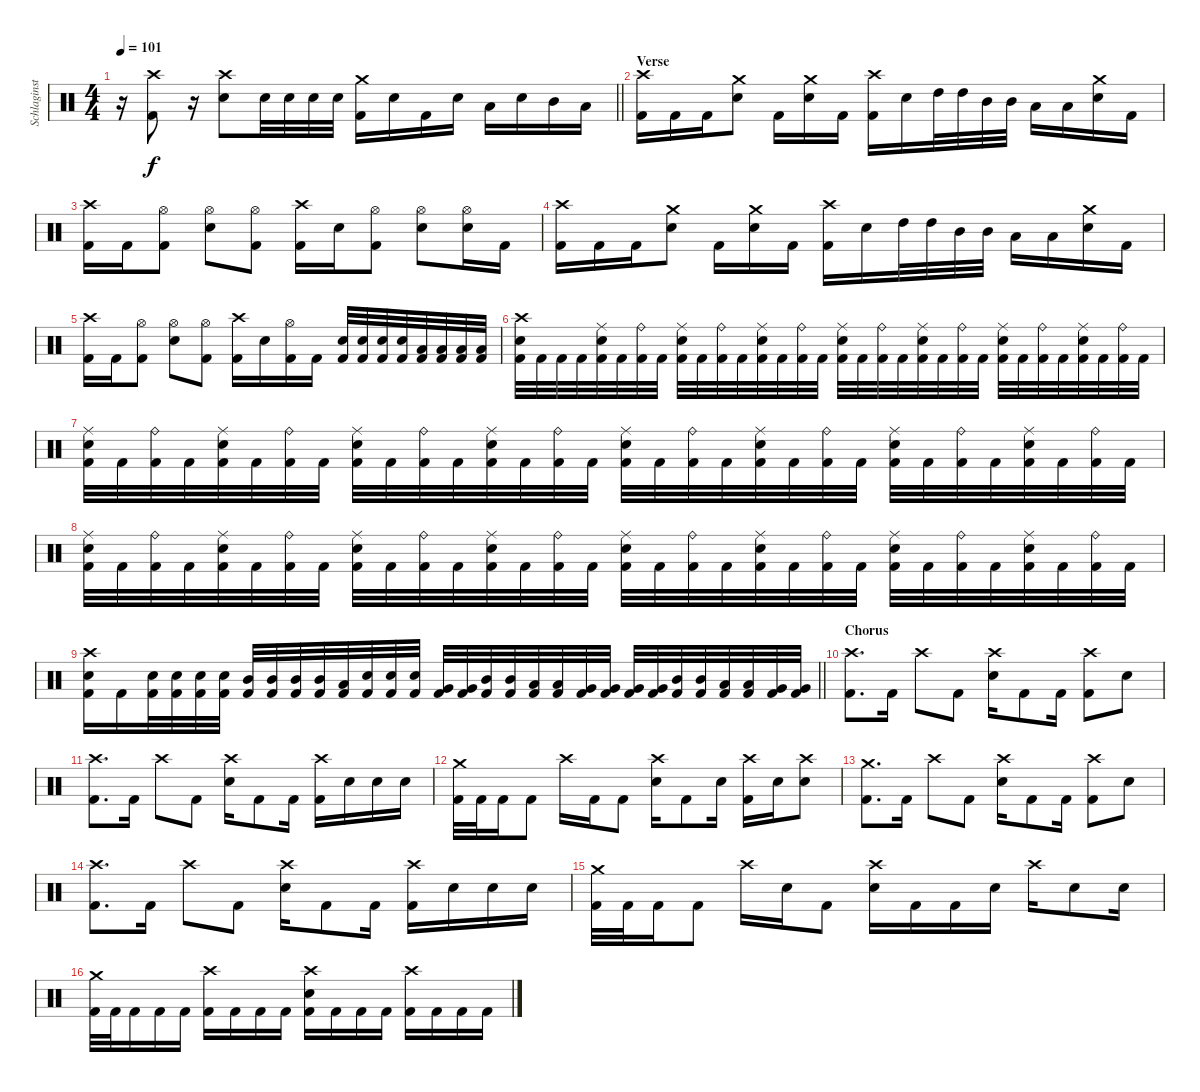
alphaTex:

\track ("Schlaginstrumente - Auswahl" "Schlaginst") {instrument percussion}
\staff {score}
\articulation defaults
\ts (4 4)
\tempo 101
\clef neutral
\barLineRight lightlight
\ks c
r.16{dy f} ("Crash high (hit)" "Kick (hit) 2").8 r.16 ("Crash high (hit)" "Snare (hit) 2").8 "Snare (hit) 2".32 "Snare (hit) 2".32 "Snare (hit) 2".32 "Snare (hit) 2".32 ("Crash medium (hit)" "Kick (hit) 2").16 "Snare (hit) 2".16 "Kick (hit) 2".16 "Snare (hit) 2".16 "Low Floor Tom (hit)".16 "Snare (hit) 2".16 "Mid Tom (hit)".16 "Low Tom (hit)".16 |
\section ("" "Verse")
("Crash high (hit)" "Kick (hit) 2").16 "Kick (hit) 2".16 "Kick (hit) 2".16 ("Crash medium (hit)" "Snare (hit) 2").8 "Kick (hit) 2".16 ("Crash medium (hit)" "Snare (hit) 2").16 "Kick (hit) 2".16 ("Crash high (hit)" "Kick (hit) 2").16 "Snare (hit) 2".16 "High Tom (hit)".32 "High Tom (hit)".32 "Mid Tom (hit)".32 "Mid Tom (hit)".32 "Low Tom (hit)".16 "Low Tom (hit)".16 ("Crash medium (hit)" "Snare (hit) 2").16 "Kick (hit) 2".16 |
("Crash high (hit)" "Kick (hit) 2").16 "Kick (hit) 2".16 ("Hi-Hat (open)" "Kick (hit) 2").8 ("Hi-Hat (open)" "Snare (hit) 2").8 ("Hi-Hat (open)" "Kick (hit) 2").8 ("Crash high (hit)" "Kick (hit) 2").16 "Snare (hit) 2".16 ("Hi-Hat (open)" "Kick (hit) 2").8 ("Hi-Hat (open)" "Snare (hit) 2").8 ("Hi-Hat (open)" "Snare (hit) 2").16 "Kick (hit) 2".16 |
("Crash high (hit)" "Kick (hit) 2").16 "Kick (hit) 2".16 "Kick (hit) 2".16 ("Crash medium (hit)" "Snare (hit) 2").8 "Kick (hit) 2".16 ("Crash medium (hit)" "Snare (hit) 2").16 "Kick (hit) 2".16 ("Crash high (hit)" "Kick (hit) 2").16 "Snare (hit) 2".16 "High Tom (hit)".32 "High Tom (hit)".32 "Mid Tom (hit)".32 "Mid Tom (hit)".32 "Low Tom (hit)".16 "Low Tom (hit)".16 ("Crash medium (hit)" "Snare (hit) 2").16 "Kick (hit) 2".16 |
("Crash high (hit)" "Kick (hit) 2").16 "Kick (hit) 2".16 ("Hi-Hat (open)" "Kick (hit) 2").8 ("Hi-Hat (open)" "Snare (hit) 2").8 ("Hi-Hat (open)" "Kick (hit) 2").8 ("Crash high (hit)" "Kick (hit) 2").16 "Snare (hit) 2".16 ("Hi-Hat (open)" "Kick (hit) 2").16 "Kick (hit) 2".16 ("Snare (hit) 2" "Kick (hit) 2").32 ("Snare (hit) 2" "Kick (hit) 2").32 ("Snare (hit) 2" "Kick (hit) 2").32 ("Snare (hit) 2" "Kick (hit) 2").32 ("Low Tom (hit)" "Kick (hit) 2").32 ("Low Tom (hit)" "Kick (hit) 2").32 ("Low Tom (hit)" "Kick (hit) 2").32 ("Low Tom (hit)" "Kick (hit) 2").32 |
("Crash high (hit)" "Snare (hit) 2" "Kick (hit) 2").32 "Kick (hit) 2".32 "Kick (hit) 2".32 "Kick (hit) 2".32 ("Ride (middle)" "Snare (hit) 2" "Kick (hit) 2").32 "Kick (hit) 2".32 ("Ride (bell)" "Kick (hit) 2").32 "Kick (hit) 2".32 ("Ride (middle)" "Snare (hit) 2" "Kick (hit) 2").32 "Kick (hit) 2".32 ("Ride (bell)" "Kick (hit) 2").32 "Kick (hit) 2".32 ("Ride (middle)" "Snare (hit) 2" "Kick (hit) 2").32 "Kick (hit) 2".32 ("Ride (bell)" "Kick (hit) 2").32 "Kick (hit) 2".32 ("Ride (middle)" "Snare (hit) 2" "Kick (hit) 2").32 "Kick (hit) 2".32 ("Ride (bell)" "Kick (hit) 2").32 "Kick (hit) 2".32 ("Ride (middle)" "Snare (hit) 2" "Kick (hit) 2").32 "Kick (hit) 2".32 ("Ride (bell)" "Kick (hit) 2").32 "Kick (hit) 2".32 ("Ride (middle)" "Snare (hit) 2" "Kick (hit) 2").32 "Kick (hit) 2".32 ("Ride (bell)" "Kick (hit) 2").32 "Kick (hit) 2".32 ("Ride (middle)" "Snare (hit) 2" "Kick (hit) 2").32 "Kick (hit) 2".32 ("Ride (bell)" "Kick (hit) 2").32 "Kick (hit) 2".32 |
("Ride (middle)" "Snare (hit) 2" "Kick (hit) 2").32 "Kick (hit) 2".32 ("Ride (bell)" "Kick (hit) 2").32 "Kick (hit) 2".32 ("Ride (middle)" "Snare (hit) 2" "Kick (hit) 2").32 "Kick (hit) 2".32 ("Ride (bell)" "Kick (hit) 2").32 "Kick (hit) 2".32 ("Ride (middle)" "Snare (hit) 2" "Kick (hit) 2").32 "Kick (hit) 2".32 ("Ride (bell)" "Kick (hit) 2").32 "Kick (hit) 2".32 ("Ride (middle)" "Snare (hit) 2" "Kick (hit) 2").32 "Kick (hit) 2".32 ("Ride (bell)" "Kick (hit) 2").32 "Kick (hit) 2".32 ("Ride (middle)" "Snare (hit) 2" "Kick (hit) 2").32 "Kick (hit) 2".32 ("Ride (bell)" "Kick (hit) 2").32 "Kick (hit) 2".32 ("Ride (middle)" "Snare (hit) 2" "Kick (hit) 2").32 "Kick (hit) 2".32 ("Ride (bell)" "Kick (hit) 2").32 "Kick (hit) 2".32 ("Ride (middle)" "Snare (hit) 2" "Kick (hit) 2").32 "Kick (hit) 2".32 ("Ride (bell)" "Kick (hit) 2").32 "Kick (hit) 2".32 ("Ride (middle)" "Snare (hit) 2" "Kick (hit) 2").32 "Kick (hit) 2".32 ("Ride (bell)" "Kick (hit) 2").32 "Kick (hit) 2".32 |
("Ride (middle)" "Snare (hit) 2" "Kick (hit) 2").32 "Kick (hit) 2".32 ("Ride (bell)" "Kick (hit) 2").32 "Kick (hit) 2".32 ("Ride (middle)" "Snare (hit) 2" "Kick (hit) 2").32 "Kick (hit) 2".32 ("Ride (bell)" "Kick (hit) 2").32 "Kick (hit) 2".32 ("Ride (middle)" "Snare (hit) 2" "Kick (hit) 2").32 "Kick (hit) 2".32 ("Ride (bell)" "Kick (hit) 2").32 "Kick (hit) 2".32 ("Ride (middle)" "Snare (hit) 2" "Kick (hit) 2").32 "Kick (hit) 2".32 ("Ride (bell)" "Kick (hit) 2").32 "Kick (hit) 2".32 ("Ride (middle)" "Snare (hit) 2" "Kick (hit) 2").32 "Kick (hit) 2".32 ("Ride (bell)" "Kick (hit) 2").32 "Kick (hit) 2".32 ("Ride (middle)" "Snare (hit) 2" "Kick (hit) 2").32 "Kick (hit) 2".32 ("Ride (bell)" "Kick (hit) 2").32 "Kick (hit) 2".32 ("Ride (middle)" "Snare (hit) 2" "Kick (hit) 2").32 "Kick (hit) 2".32 ("Ride (bell)" "Kick (hit) 2").32 "Kick (hit) 2".32 ("Ride (middle)" "Snare (hit) 2" "Kick (hit) 2").32 "Kick (hit) 2".32 ("Ride (bell)" "Kick (hit) 2").32 "Kick (hit) 2".32 |
\barLineRight lightlight
("Crash high (hit)" "Snare (hit) 2" "Kick (hit) 2").16 "Kick (hit) 2".16 ("Snare (hit) 2" "Kick (hit) 2").32 ("Snare (hit) 2" "Kick (hit) 2").32 ("Snare (hit) 2" "Kick (hit) 2").32 ("Snare (hit) 2" "Kick (hit) 2").32 ("Mid Tom (hit)" "Kick (hit) 2").32 ("Mid Tom (hit)" "Kick (hit) 2").32 ("Mid Tom (hit)" "Kick (hit) 2").32 ("Mid Tom (hit)" "Kick (hit) 2").32 ("Low Tom (hit)" "Kick (hit) 2").32 ("Snare (hit) 2" "Kick (hit) 2").32 ("Snare (hit) 2" "Kick (hit) 2").32 ("Snare (hit) 2" "Kick (hit) 2").32 ("Very Low Tom (hit)" "Kick (hit) 2").32 ("Very Low Tom (hit)" "Kick (hit) 2").32 ("Mid Tom (hit)" "Kick (hit) 2").32 ("Mid Tom (hit)" "Kick (hit) 2").32 ("Low Tom (hit)" "Kick (hit) 2").32 ("Low Tom (hit)" "Kick (hit) 2").32 ("Very Low Tom (hit)" "Kick (hit) 2").32 ("Very Low Tom (hit)" "Kick (hit) 2").32 ("Very Low Tom (hit)" "Kick (hit) 2").32 ("Very Low Tom (hit)" "Kick (hit) 2").32 ("Mid Tom (hit)" "Kick (hit) 2").32 ("Mid Tom (hit)" "Kick (hit) 2").32 ("Low Tom (hit)" "Kick (hit) 2").32 ("Low Tom (hit)" "Kick (hit) 2").32 ("Very Low Tom (hit)" "Kick (hit) 2").32 ("Very Low Tom (hit)" "Kick (hit) 2").32 |
\section ("" "Chorus")
("Crash high (hit)" "Kick (hit) 2").8{d} "Kick (hit) 2".16 "Crash high (hit)".8 "Kick (hit) 2".8 ("Crash high (hit)" "Snare (hit) 2").16 "Kick (hit) 2".8 "Kick (hit) 2".16 ("Crash high (hit)" "Kick (hit) 2").8 "Snare (hit) 2".8 |
("Crash high (hit)" "Kick (hit) 2").8{d} "Kick (hit) 2".16 "Crash high (hit)".8 "Kick (hit) 2".8 ("Crash high (hit)" "Snare (hit) 2").16 "Kick (hit) 2".8 "Kick (hit) 2".16 ("Crash high (hit)" "Kick (hit) 2").16 "Snare (hit) 2".16 "Snare (hit) 2".16 "Snare (hit) 2".16 |
("Crash medium (hit)" "Kick (hit) 2").32 "Kick (hit) 2".32 "Kick (hit) 2".16 "Kick (hit) 2".8 "Crash high (hit)".16 "Kick (hit) 2".16 "Kick (hit) 2".8 ("Crash high (hit)" "Snare (hit) 2").16 "Kick (hit) 2".8 "Snare (hit) 2".16 ("Crash high (hit)" "Kick (hit) 2").16 "Snare (hit) 2".16 ("Crash high (hit)" "Snare (hit) 2").8 |
("Crash medium (hit)" "Kick (hit) 2").8{d} "Kick (hit) 2".16 "Crash high (hit)".8 "Kick (hit) 2".8 ("Crash high (hit)" "Snare (hit) 2").16 "Kick (hit) 2".8 "Kick (hit) 2".16 ("Crash high (hit)" "Kick (hit) 2").8 "Snare (hit) 2".8 |
("Crash high (hit)" "Kick (hit) 2").8{d} "Kick (hit) 2".16 "Crash high (hit)".8 "Kick (hit) 2".8 ("Crash high (hit)" "Snare (hit) 2").16 "Kick (hit) 2".8 "Kick (hit) 2".16 ("Crash high (hit)" "Kick (hit) 2").16 "Snare (hit) 2".16 "Snare (hit) 2".16 "Snare (hit) 2".16 |
("Crash medium (hit)" "Kick (hit) 2").32 "Kick (hit) 2".32 "Kick (hit) 2".16 "Kick (hit) 2".8 "Crash high (hit)".16 "Snare (hit) 2".16 "Kick (hit) 2".8 ("Crash high (hit)" "Snare (hit) 2").16 "Kick (hit) 2".16 "Kick (hit) 2".16 "Snare (hit) 2".16 "Crash high (hit)".16 "Snare (hit) 2".8 "Snare (hit) 2".16 |
("Crash medium (hit)" "Kick (hit) 2").32 "Kick (hit) 2".32 "Kick (hit) 2".16 "Kick (hit) 2".16 "Kick (hit) 2".16 ("Crash high (hit)" "Kick (hit) 2").16 "Kick (hit) 2".16 "Kick (hit) 2".16 "Kick (hit) 2".16 ("Crash high (hit)" "Snare (hit) 2" "Kick (hit) 2").16 "Kick (hit) 2".16 "Kick (hit) 2".16 "Kick (hit) 2".16 ("Crash high (hit)" "Kick (hit) 2").16 "Kick (hit) 2".16 "Kick (hit) 2".16 "Kick (hit) 2".16
